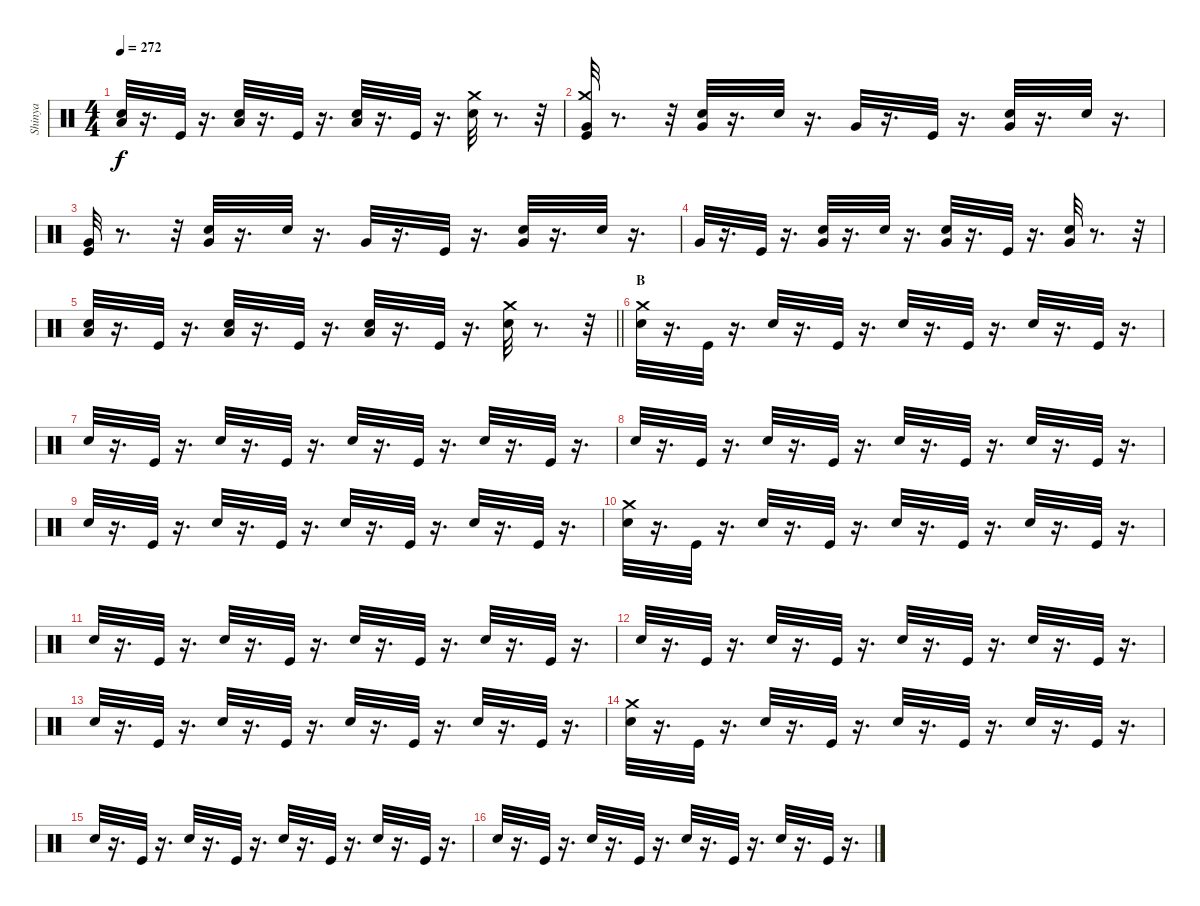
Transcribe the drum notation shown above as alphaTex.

\track ("Shinya" "Shinya") {instrument percussion}
\staff {score}
\articulation defaults
\ts (4 4)
\tempo 272
\clef neutral
\ks c
("Low Tom (hit)" "Snare (hit) 2").32{dy f} r.16{d} "Kick (hit)".32 r.16{d} ("Low Tom (hit)" "Snare (hit) 2").32 r.16{d} "Kick (hit)".32 r.16{d} ("Low Tom (hit)" "Snare (hit) 2").32 r.16{d} "Kick (hit)".32 r.16{d} ("Crash medium (hit)" "Snare (hit) 2").32 r.8{d} r.32 |
("Very Low Tom (hit)" "Kick (hit)" "Crash medium (hit)").32 r.8{d} r.32 ("Snare (hit) 2" "Very Low Tom (hit)").32 r.16{d} "Snare (hit) 2".32 r.16{d} "Very Low Tom (hit)".32 r.16{d} "Kick (hit)".32 r.16{d} ("Very Low Tom (hit)" "Snare (hit) 2").32 r.16{d} "Snare (hit) 2".32 r.16{d} |
("Very Low Tom (hit)" "Kick (hit)").32 r.8{d} r.32 ("Snare (hit) 2" "Very Low Tom (hit)").32 r.16{d} "Snare (hit) 2".32 r.16{d} "Very Low Tom (hit)".32 r.16{d} "Kick (hit)".32 r.16{d} ("Very Low Tom (hit)" "Snare (hit) 2").32 r.16{d} "Snare (hit) 2".32 r.16{d} |
"Very Low Tom (hit)".32 r.16{d} "Kick (hit)".32 r.16{d} ("Very Low Tom (hit)" "Snare (hit) 2").32 r.16{d} "Snare (hit) 2".32 r.16{d} ("Snare (hit) 2" "Very Low Tom (hit)").32 r.16{d} "Kick (hit)".32 r.16{d} ("Very Low Tom (hit)" "Snare (hit) 2").32 r.8{d} r.32 |
\barLineRight lightlight
("Low Tom (hit)" "Snare (hit) 2").32 r.16{d} "Kick (hit)".32 r.16{d} ("Low Tom (hit)" "Snare (hit) 2").32 r.16{d} "Kick (hit)".32 r.16{d} ("Low Tom (hit)" "Snare (hit) 2").32 r.16{d} "Kick (hit)".32 r.16{d} ("Crash medium (hit)" "Snare (hit) 2").32 r.8{d} r.32 |
\section ("" "B")
("Crash medium (hit)" "Snare (hit) 2").32 r.16{d} "Kick (hit)".32 r.16{d} "Snare (hit) 2".32 r.16{d} "Kick (hit)".32 r.16{d} "Snare (hit) 2".32 r.16{d} "Kick (hit)".32 r.16{d} "Snare (hit) 2".32 r.16{d} "Kick (hit)".32 r.16{d} |
"Snare (hit) 2".32 r.16{d} "Kick (hit)".32 r.16{d} "Snare (hit) 2".32 r.16{d} "Kick (hit)".32 r.16{d} "Snare (hit) 2".32 r.16{d} "Kick (hit)".32 r.16{d} "Snare (hit) 2".32 r.16{d} "Kick (hit)".32 r.16{d} |
"Snare (hit) 2".32 r.16{d} "Kick (hit)".32 r.16{d} "Snare (hit) 2".32 r.16{d} "Kick (hit)".32 r.16{d} "Snare (hit) 2".32 r.16{d} "Kick (hit)".32 r.16{d} "Snare (hit) 2".32 r.16{d} "Kick (hit)".32 r.16{d} |
"Snare (hit) 2".32 r.16{d} "Kick (hit)".32 r.16{d} "Snare (hit) 2".32 r.16{d} "Kick (hit)".32 r.16{d} "Snare (hit) 2".32 r.16{d} "Kick (hit)".32 r.16{d} "Snare (hit) 2".32 r.16{d} "Kick (hit)".32 r.16{d} |
("Crash medium (hit)" "Snare (hit) 2").32 r.16{d} "Kick (hit)".32 r.16{d} "Snare (hit) 2".32 r.16{d} "Kick (hit)".32 r.16{d} "Snare (hit) 2".32 r.16{d} "Kick (hit)".32 r.16{d} "Snare (hit) 2".32 r.16{d} "Kick (hit)".32 r.16{d} |
"Snare (hit) 2".32 r.16{d} "Kick (hit)".32 r.16{d} "Snare (hit) 2".32 r.16{d} "Kick (hit)".32 r.16{d} "Snare (hit) 2".32 r.16{d} "Kick (hit)".32 r.16{d} "Snare (hit) 2".32 r.16{d} "Kick (hit)".32 r.16{d} |
"Snare (hit) 2".32 r.16{d} "Kick (hit)".32 r.16{d} "Snare (hit) 2".32 r.16{d} "Kick (hit)".32 r.16{d} "Snare (hit) 2".32 r.16{d} "Kick (hit)".32 r.16{d} "Snare (hit) 2".32 r.16{d} "Kick (hit)".32 r.16{d} |
"Snare (hit) 2".32 r.16{d} "Kick (hit)".32 r.16{d} "Snare (hit) 2".32 r.16{d} "Kick (hit)".32 r.16{d} "Snare (hit) 2".32 r.16{d} "Kick (hit)".32 r.16{d} "Snare (hit) 2".32 r.16{d} "Kick (hit)".32 r.16{d} |
("Crash medium (hit)" "Snare (hit) 2").32 r.16{d} "Kick (hit)".32 r.16{d} "Snare (hit) 2".32 r.16{d} "Kick (hit)".32 r.16{d} "Snare (hit) 2".32 r.16{d} "Kick (hit)".32 r.16{d} "Snare (hit) 2".32 r.16{d} "Kick (hit)".32 r.16{d} |
"Snare (hit) 2".32 r.16{d} "Kick (hit)".32 r.16{d} "Snare (hit) 2".32 r.16{d} "Kick (hit)".32 r.16{d} "Snare (hit) 2".32 r.16{d} "Kick (hit)".32 r.16{d} "Snare (hit) 2".32 r.16{d} "Kick (hit)".32 r.16{d} |
"Snare (hit) 2".32 r.16{d} "Kick (hit)".32 r.16{d} "Snare (hit) 2".32 r.16{d} "Kick (hit)".32 r.16{d} "Snare (hit) 2".32 r.16{d} "Kick (hit)".32 r.16{d} "Snare (hit) 2".32 r.16{d} "Kick (hit)".32 r.16{d}
